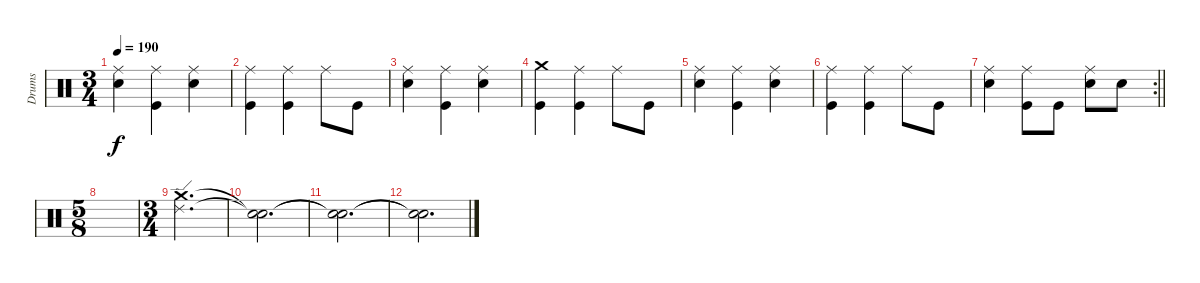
\track ("Drums" "Drums") {instrument percussion bank 1}
\staff {score}
\articulation defaults
\ts (3 4)
\tempo 190
\clef neutral
\ks c
("Snare (hit) 2" "Ride (middle)").4{dy f} ("Kick (hit)" "Ride (middle)").4 ("Snare (hit) 2" "Ride (middle)").4 |
("Kick (hit)" "Ride (middle)").4 ("Kick (hit)" "Ride (middle)").4 "Ride (middle)".8 "Kick (hit)".8 |
("Snare (hit) 2" "Ride (middle)").4 ("Kick (hit)" "Ride (middle)").4 ("Snare (hit) 2" "Ride (middle)").4 |
("Kick (hit)" "Crash medium (hit)").4 ("Kick (hit)" "Ride (middle)").4 "Ride (middle)".8 "Kick (hit)".8 |
("Snare (hit) 2" "Ride (middle)").4 ("Kick (hit)" "Ride (middle)").4 ("Snare (hit) 2" "Ride (middle)").4 |
("Kick (hit)" "Ride (middle)").4 ("Kick (hit)" "Ride (middle)").4 "Ride (middle)".8 "Kick (hit)".8 |
\rc 2
\barLineRight lightlight
("Snare (hit) 2" "Ride (middle)").4 ("Kick (hit)" "Ride (middle)").8 "Kick (hit)".8 ("Snare (hit) 2" "Ride (middle)").8 "Snare (hit) 2".8 |
\ts (5 8)
|
\ts (3 4)
("Ride (edge) 2" "Crash medium (hit)").2{d} |
("Snare (hit)"{t} "Snare (hit)"{t}).2{d} |
("Snare (hit)"{t} "Snare (hit)"{t}).2{d} |
("Snare (hit)"{t} "Snare (hit)"{t}).2{d}
